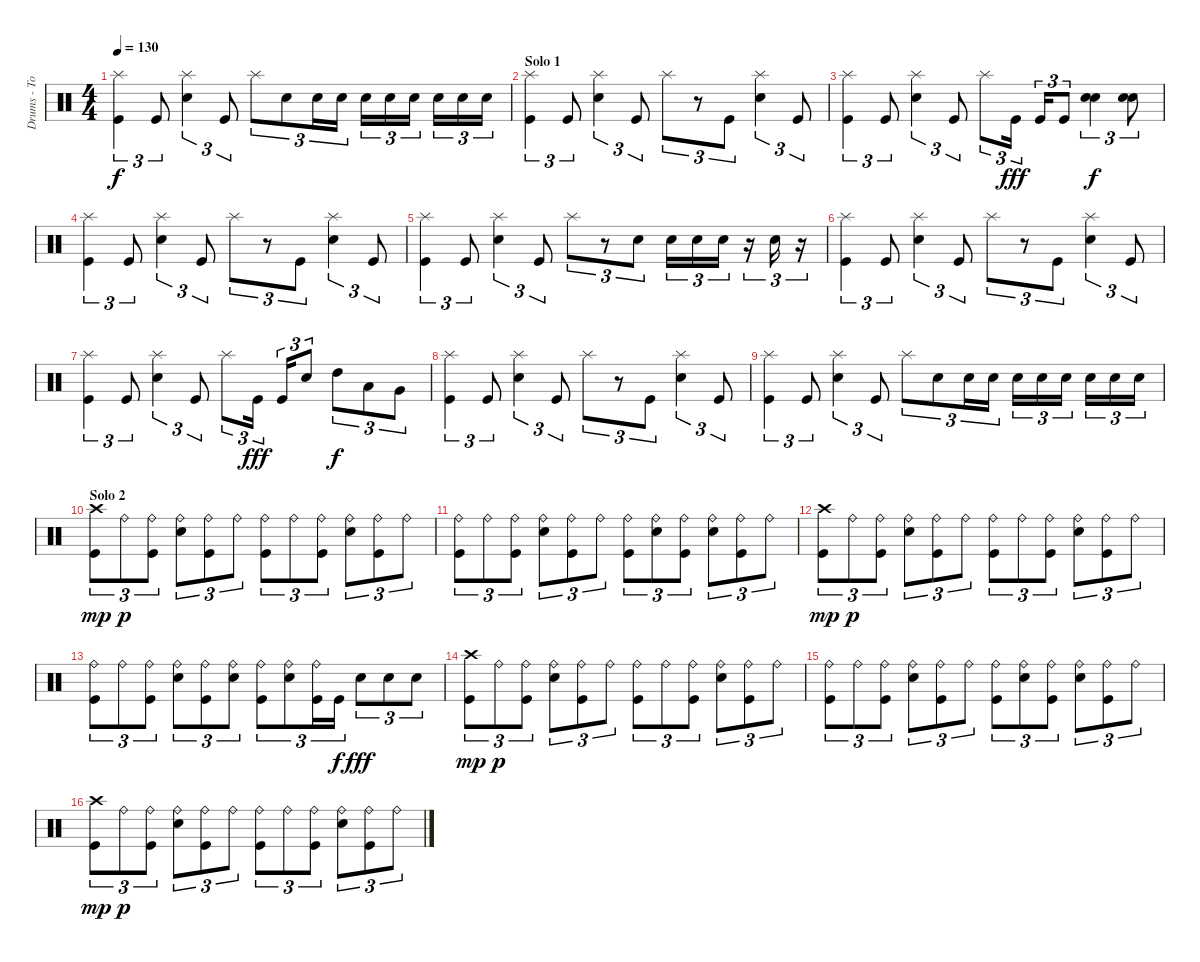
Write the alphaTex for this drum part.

\track ("Drums - Tomas" "Drums - To") {instrument percussion}
\staff {score}
\articulation defaults
\ts (4 4)
\tempo 130
\clef neutral
\ks c
("Splash (hit)" "Kick (hit)").4{tu (3 2) dy f} "Kick (hit)".8{tu (3 2)} ("Splash (hit)" "Electric Snare (hit)").4{tu (3 2)} "Kick (hit)".8{tu (3 2)} "Splash (hit)".8{tu (3 2)} "Electric Snare (hit)".8{tu (3 2)} "Electric Snare (hit)".16{tu (3 2)} "Electric Snare (hit)".16{tu (3 2)} "Electric Snare (hit)".16{tu (3 2)} "Electric Snare (hit)".16{tu (3 2)} "Electric Snare (hit)".16{tu (3 2)} "Electric Snare (hit)".16{tu (3 2)} "Electric Snare (hit)".16{tu (3 2)} "Electric Snare (hit)".16{tu (3 2)} |
\section ("" "Solo 1")
("Splash (hit)" "Kick (hit)").4{tu (3 2)} "Kick (hit)".8{tu (3 2)} ("Splash (hit)" "Electric Snare (hit)").4{tu (3 2)} "Kick (hit)".8{tu (3 2)} "Splash (hit)".8{tu (3 2)} r.8{tu (3 2)} "Kick (hit)".8{tu (3 2)} ("Splash (hit)" "Electric Snare (hit)").4{tu (3 2)} "Kick (hit)".8{tu (3 2)} |
("Splash (hit)" "Kick (hit)").4{tu (3 2)} "Kick (hit)".8{tu (3 2)} ("Splash (hit)" "Electric Snare (hit)").4{tu (3 2)} "Kick (hit)".8{tu (3 2)} "Splash (hit)".8{tu (3 2)} "Kick (hit)".16{tu (3 2) dy fff} "Kick (hit)".16{tu (3 2)} "Kick (hit)".8{tu (3 2)} ("Electric Snare (hit)" "Electric Snare (hit)").4{tu (3 2) dy f} ("Electric Snare (hit)" "Electric Snare (hit)").8{tu (3 2)} |
("Splash (hit)" "Kick (hit)").4{tu (3 2)} "Kick (hit)".8{tu (3 2)} ("Splash (hit)" "Electric Snare (hit)").4{tu (3 2)} "Kick (hit)".8{tu (3 2)} "Splash (hit)".8{tu (3 2)} r.8{tu (3 2)} "Kick (hit)".8{tu (3 2)} ("Splash (hit)" "Electric Snare (hit)").4{tu (3 2)} "Kick (hit)".8{tu (3 2)} |
("Splash (hit)" "Kick (hit)").4{tu (3 2)} "Kick (hit)".8{tu (3 2)} ("Splash (hit)" "Electric Snare (hit)").4{tu (3 2)} "Kick (hit)".8{tu (3 2)} "Splash (hit)".8{tu (3 2)} r.8{tu (3 2)} "Electric Snare (hit)".8{tu (3 2)} "Electric Snare (hit)".16{tu (3 2)} "Electric Snare (hit)".16{tu (3 2)} "Electric Snare (hit)".16{tu (3 2)} r.16{tu (3 2)} "Electric Snare (hit)".16{tu (3 2)} r.16{tu (3 2)} |
("Splash (hit)" "Kick (hit)").4{tu (3 2)} "Kick (hit)".8{tu (3 2)} ("Splash (hit)" "Electric Snare (hit)").4{tu (3 2)} "Kick (hit)".8{tu (3 2)} "Splash (hit)".8{tu (3 2)} r.8{tu (3 2)} "Kick (hit)".8{tu (3 2)} ("Splash (hit)" "Electric Snare (hit)").4{tu (3 2)} "Kick (hit)".8{tu (3 2)} |
("Splash (hit)" "Kick (hit)").4{tu (3 2)} "Kick (hit)".8{tu (3 2)} ("Splash (hit)" "Electric Snare (hit)").4{tu (3 2)} "Kick (hit)".8{tu (3 2)} "Splash (hit)".8{tu (3 2)} "Kick (hit)".16{tu (3 2) dy fff} "Kick (hit)".16{tu (3 2)} "Electric Snare (hit)".8{tu (3 2)} "High Tom (hit)".8{tu (3 2) dy f} "Low Tom (hit)".8{tu (3 2)} "Very Low Tom (hit)".8{tu (3 2)} |
("Splash (hit)" "Kick (hit)").4{tu (3 2)} "Kick (hit)".8{tu (3 2)} ("Splash (hit)" "Electric Snare (hit)").4{tu (3 2)} "Kick (hit)".8{tu (3 2)} "Splash (hit)".8{tu (3 2)} r.8{tu (3 2)} "Kick (hit)".8{tu (3 2)} ("Splash (hit)" "Electric Snare (hit)").4{tu (3 2)} "Kick (hit)".8{tu (3 2)} |
("Splash (hit)" "Kick (hit)").4{tu (3 2)} "Kick (hit)".8{tu (3 2)} ("Splash (hit)" "Electric Snare (hit)").4{tu (3 2)} "Kick (hit)".8{tu (3 2)} "Splash (hit)".8{tu (3 2)} "Electric Snare (hit)".8{tu (3 2)} "Electric Snare (hit)".16{tu (3 2)} "Electric Snare (hit)".16{tu (3 2)} "Electric Snare (hit)".16{tu (3 2)} "Electric Snare (hit)".16{tu (3 2)} "Electric Snare (hit)".16{tu (3 2)} "Electric Snare (hit)".16{tu (3 2)} "Electric Snare (hit)".16{tu (3 2)} "Electric Snare (hit)".16{tu (3 2)} |
\section ("" "Solo 2")
("Crash high (hit)" "Kick (hit)").8{tu (3 2) dy mp} "Ride (bell)".8{tu (3 2) dy p} ("Ride (bell)" "Kick (hit)").8{tu (3 2)} ("Ride (bell)" "Electric Snare (hit)").8{tu (3 2)} ("Ride (bell)" "Kick (hit)").8{tu (3 2)} "Ride (bell)".8{tu (3 2)} ("Ride (bell)" "Kick (hit)").8{tu (3 2)} "Ride (bell)".8{tu (3 2)} ("Ride (bell)" "Kick (hit)").8{tu (3 2)} ("Ride (bell)" "Electric Snare (hit)").8{tu (3 2)} ("Ride (bell)" "Kick (hit)").8{tu (3 2)} "Ride (bell)".8{tu (3 2)} |
("Ride (bell)" "Kick (hit)").8{tu (3 2)} "Ride (bell)".8{tu (3 2)} ("Ride (bell)" "Kick (hit)").8{tu (3 2)} ("Ride (bell)" "Electric Snare (hit)").8{tu (3 2)} ("Ride (bell)" "Kick (hit)").8{tu (3 2)} "Ride (bell)".8{tu (3 2)} ("Ride (bell)" "Kick (hit)").8{tu (3 2)} ("Ride (bell)" "Electric Snare (hit)").8{tu (3 2)} ("Ride (bell)" "Kick (hit)").8{tu (3 2)} ("Ride (bell)" "Electric Snare (hit)").8{tu (3 2)} ("Ride (bell)" "Kick (hit)").8{tu (3 2)} "Ride (bell)".8{tu (3 2)} |
("Crash high (hit)" "Kick (hit)").8{tu (3 2) dy mp} "Ride (bell)".8{tu (3 2) dy p} ("Ride (bell)" "Kick (hit)").8{tu (3 2)} ("Ride (bell)" "Electric Snare (hit)").8{tu (3 2)} ("Ride (bell)" "Kick (hit)").8{tu (3 2)} "Ride (bell)".8{tu (3 2)} ("Ride (bell)" "Kick (hit)").8{tu (3 2)} "Ride (bell)".8{tu (3 2)} ("Ride (bell)" "Kick (hit)").8{tu (3 2)} ("Ride (bell)" "Electric Snare (hit)").8{tu (3 2)} ("Ride (bell)" "Kick (hit)").8{tu (3 2)} "Ride (bell)".8{tu (3 2)} |
("Ride (bell)" "Kick (hit)").8{tu (3 2)} "Ride (bell)".8{tu (3 2)} ("Ride (bell)" "Kick (hit)").8{tu (3 2)} ("Ride (bell)" "Electric Snare (hit)").8{tu (3 2)} ("Ride (bell)" "Kick (hit)").8{tu (3 2)} ("Ride (bell)" "Electric Snare (hit)").8{tu (3 2)} ("Ride (bell)" "Kick (hit)").8{tu (3 2)} ("Ride (bell)" "Electric Snare (hit)").8{tu (3 2)} ("Ride (bell)" "Kick (hit)").16{tu (3 2)} "Kick (hit)".16{tu (3 2) dy f} "Electric Snare (hit)".8{tu (3 2) dy fff} "Electric Snare (hit)".8{tu (3 2)} "Electric Snare (hit)".8{tu (3 2)} |
("Crash high (hit)" "Kick (hit)").8{tu (3 2) dy mp} "Ride (bell)".8{tu (3 2) dy p} ("Ride (bell)" "Kick (hit)").8{tu (3 2)} ("Ride (bell)" "Electric Snare (hit)").8{tu (3 2)} ("Ride (bell)" "Kick (hit)").8{tu (3 2)} "Ride (bell)".8{tu (3 2)} ("Ride (bell)" "Kick (hit)").8{tu (3 2)} "Ride (bell)".8{tu (3 2)} ("Ride (bell)" "Kick (hit)").8{tu (3 2)} ("Ride (bell)" "Electric Snare (hit)").8{tu (3 2)} ("Ride (bell)" "Kick (hit)").8{tu (3 2)} "Ride (bell)".8{tu (3 2)} |
("Ride (bell)" "Kick (hit)").8{tu (3 2)} "Ride (bell)".8{tu (3 2)} ("Ride (bell)" "Kick (hit)").8{tu (3 2)} ("Ride (bell)" "Electric Snare (hit)").8{tu (3 2)} ("Ride (bell)" "Kick (hit)").8{tu (3 2)} "Ride (bell)".8{tu (3 2)} ("Ride (bell)" "Kick (hit)").8{tu (3 2)} ("Ride (bell)" "Electric Snare (hit)").8{tu (3 2)} ("Ride (bell)" "Kick (hit)").8{tu (3 2)} ("Ride (bell)" "Electric Snare (hit)").8{tu (3 2)} ("Ride (bell)" "Kick (hit)").8{tu (3 2)} "Ride (bell)".8{tu (3 2)} |
("Crash high (hit)" "Kick (hit)").8{tu (3 2) dy mp} "Ride (bell)".8{tu (3 2) dy p} ("Ride (bell)" "Kick (hit)").8{tu (3 2)} ("Ride (bell)" "Electric Snare (hit)").8{tu (3 2)} ("Ride (bell)" "Kick (hit)").8{tu (3 2)} "Ride (bell)".8{tu (3 2)} ("Ride (bell)" "Kick (hit)").8{tu (3 2)} "Ride (bell)".8{tu (3 2)} ("Ride (bell)" "Kick (hit)").8{tu (3 2)} ("Ride (bell)" "Electric Snare (hit)").8{tu (3 2)} ("Ride (bell)" "Kick (hit)").8{tu (3 2)} "Ride (bell)".8{tu (3 2)}
